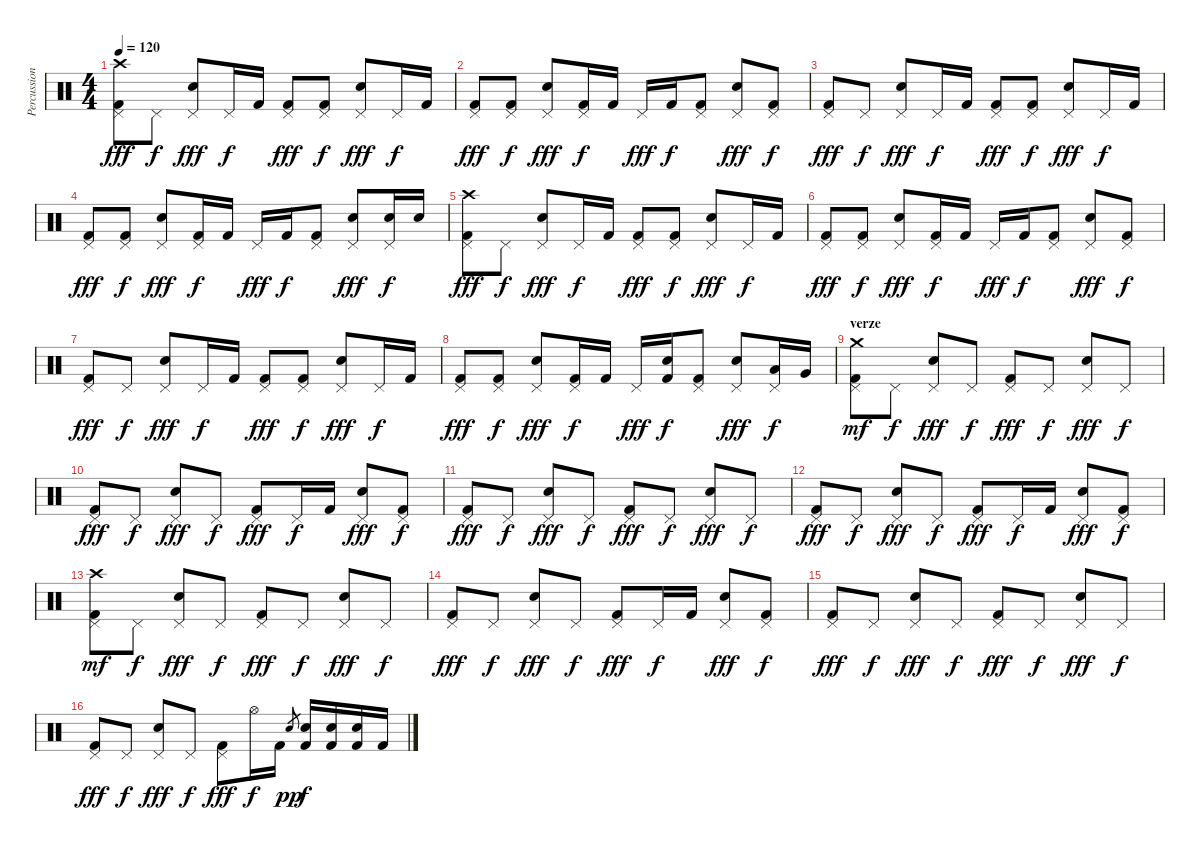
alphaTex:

\track ("Percussion" "Percussion") {instrument percussion}
\staff {score}
\articulation defaults
\ts (4 4)
\tempo 120
\clef neutral
\ks c
("Pedal Hi-Hat (hit)" "Kick (hit) 2" "Crash high (hit)").8{dy fff volume 15 balance 8} "Pedal Hi-Hat (hit)".8{dy f} ("Pedal Hi-Hat (hit)" "Snare (hit) 2").8{dy fff} "Pedal Hi-Hat (hit)".16{dy f} "Kick (hit) 2".16 ("Pedal Hi-Hat (hit)" "Kick (hit) 2").8{dy fff} ("Pedal Hi-Hat (hit)" "Kick (hit) 2").8{dy f} ("Pedal Hi-Hat (hit)" "Snare (hit) 2").8{dy fff} "Pedal Hi-Hat (hit)".16{dy f} "Kick (hit) 2".16 |
("Pedal Hi-Hat (hit)" "Kick (hit) 2").8{dy fff} ("Pedal Hi-Hat (hit)" "Kick (hit) 2").8{dy f} ("Pedal Hi-Hat (hit)" "Snare (hit) 2").8{dy fff} ("Pedal Hi-Hat (hit)" "Kick (hit) 2").16{dy f} "Kick (hit) 2".16 "Pedal Hi-Hat (hit)".16{dy fff} "Kick (hit) 2".16{dy f} ("Pedal Hi-Hat (hit)" "Kick (hit) 2").8 ("Pedal Hi-Hat (hit)" "Snare (hit) 2").8{dy fff} ("Pedal Hi-Hat (hit)" "Kick (hit) 2").8{dy f} |
("Pedal Hi-Hat (hit)" "Kick (hit) 2").8{dy fff} "Pedal Hi-Hat (hit)".8{dy f} ("Pedal Hi-Hat (hit)" "Snare (hit) 2").8{dy fff} "Pedal Hi-Hat (hit)".16{dy f} "Kick (hit) 2".16 ("Pedal Hi-Hat (hit)" "Kick (hit) 2").8{dy fff} ("Pedal Hi-Hat (hit)" "Kick (hit) 2").8{dy f} ("Pedal Hi-Hat (hit)" "Snare (hit) 2").8{dy fff} "Pedal Hi-Hat (hit)".16{dy f} "Kick (hit) 2".16 |
("Pedal Hi-Hat (hit)" "Kick (hit) 2").8{dy fff} ("Pedal Hi-Hat (hit)" "Kick (hit) 2").8{dy f} ("Pedal Hi-Hat (hit)" "Snare (hit) 2").8{dy fff} ("Pedal Hi-Hat (hit)" "Kick (hit) 2").16{dy f} "Kick (hit) 2".16 "Pedal Hi-Hat (hit)".16{dy fff} "Kick (hit) 2".16{dy f} ("Pedal Hi-Hat (hit)" "Kick (hit) 2").8 ("Pedal Hi-Hat (hit)" "Snare (hit) 2").8{dy fff} ("Pedal Hi-Hat (hit)" "Snare (hit) 2").16{dy f} "Snare (hit) 2".16 |
("Pedal Hi-Hat (hit)" "Kick (hit) 2" "Crash high (hit)").8{dy fff} "Pedal Hi-Hat (hit)".8{dy f} ("Pedal Hi-Hat (hit)" "Snare (hit) 2").8{dy fff} "Pedal Hi-Hat (hit)".16{dy f} "Kick (hit) 2".16 ("Pedal Hi-Hat (hit)" "Kick (hit) 2").8{dy fff} ("Pedal Hi-Hat (hit)" "Kick (hit) 2").8{dy f} ("Pedal Hi-Hat (hit)" "Snare (hit) 2").8{dy fff} "Pedal Hi-Hat (hit)".16{dy f} "Kick (hit) 2".16 |
("Pedal Hi-Hat (hit)" "Kick (hit) 2").8{dy fff} ("Pedal Hi-Hat (hit)" "Kick (hit) 2").8{dy f} ("Pedal Hi-Hat (hit)" "Snare (hit) 2").8{dy fff} ("Pedal Hi-Hat (hit)" "Kick (hit) 2").16{dy f} "Kick (hit) 2".16 "Pedal Hi-Hat (hit)".16{dy fff} "Kick (hit) 2".16{dy f} ("Pedal Hi-Hat (hit)" "Kick (hit) 2").8 ("Pedal Hi-Hat (hit)" "Snare (hit) 2").8{dy fff} ("Pedal Hi-Hat (hit)" "Kick (hit) 2").8{dy f} |
("Pedal Hi-Hat (hit)" "Kick (hit) 2").8{dy fff} "Pedal Hi-Hat (hit)".8{dy f} ("Pedal Hi-Hat (hit)" "Snare (hit) 2").8{dy fff} "Pedal Hi-Hat (hit)".16{dy f} "Kick (hit) 2".16 ("Pedal Hi-Hat (hit)" "Kick (hit) 2").8{dy fff} ("Pedal Hi-Hat (hit)" "Kick (hit) 2").8{dy f} ("Pedal Hi-Hat (hit)" "Snare (hit) 2").8{dy fff} "Pedal Hi-Hat (hit)".16{dy f} "Kick (hit) 2".16 |
("Pedal Hi-Hat (hit)" "Kick (hit) 2").8{dy fff} ("Pedal Hi-Hat (hit)" "Kick (hit) 2").8{dy f} ("Pedal Hi-Hat (hit)" "Snare (hit) 2").8{dy fff} ("Pedal Hi-Hat (hit)" "Kick (hit) 2").16{dy f} "Kick (hit) 2".16 "Pedal Hi-Hat (hit)".16{dy fff} ("Kick (hit) 2" "Snare (hit) 2").16{dy f} ("Pedal Hi-Hat (hit)" "Kick (hit) 2").8 ("Pedal Hi-Hat (hit)" "Snare (hit) 2").8{dy fff} ("Pedal Hi-Hat (hit)" "Low Tom (hit)").16{dy f} "Very Low Tom (hit)".16 |
\section ("" "verze")
("Pedal Hi-Hat (hit)" "Kick (hit) 2" "Crash medium (hit)").8{dy mf} "Pedal Hi-Hat (hit)".8{dy f} ("Pedal Hi-Hat (hit)" "Snare (hit) 2").8{dy fff} "Pedal Hi-Hat (hit)".8{dy f} ("Pedal Hi-Hat (hit)" "Kick (hit) 2").8{dy fff} "Pedal Hi-Hat (hit)".8{dy f} ("Pedal Hi-Hat (hit)" "Snare (hit) 2").8{dy fff} "Pedal Hi-Hat (hit)".8{dy f} |
("Pedal Hi-Hat (hit)" "Kick (hit) 2").8{dy fff} "Pedal Hi-Hat (hit)".8{dy f} ("Pedal Hi-Hat (hit)" "Snare (hit) 2").8{dy fff} "Pedal Hi-Hat (hit)".8{dy f} ("Pedal Hi-Hat (hit)" "Kick (hit) 2").8{dy fff} "Pedal Hi-Hat (hit)".16{dy f} "Kick (hit) 2".16 ("Pedal Hi-Hat (hit)" "Snare (hit) 2").8{dy fff} ("Pedal Hi-Hat (hit)" "Kick (hit) 2").8{dy f} |
("Pedal Hi-Hat (hit)" "Kick (hit) 2").8{dy fff} "Pedal Hi-Hat (hit)".8{dy f} ("Pedal Hi-Hat (hit)" "Snare (hit) 2").8{dy fff} "Pedal Hi-Hat (hit)".8{dy f} ("Pedal Hi-Hat (hit)" "Kick (hit) 2").8{dy fff} "Pedal Hi-Hat (hit)".8{dy f} ("Pedal Hi-Hat (hit)" "Snare (hit) 2").8{dy fff} "Pedal Hi-Hat (hit)".8{dy f} |
("Pedal Hi-Hat (hit)" "Kick (hit) 2").8{dy fff} "Pedal Hi-Hat (hit)".8{dy f} ("Pedal Hi-Hat (hit)" "Snare (hit) 2").8{dy fff} "Pedal Hi-Hat (hit)".8{dy f} ("Pedal Hi-Hat (hit)" "Kick (hit) 2").8{dy fff} "Pedal Hi-Hat (hit)".16{dy f} "Kick (hit) 2".16 ("Pedal Hi-Hat (hit)" "Snare (hit) 2").8{dy fff} ("Pedal Hi-Hat (hit)" "Kick (hit) 2").8{dy f} |
("Pedal Hi-Hat (hit)" "Kick (hit) 2" "Crash high (hit)").8{dy mf} "Pedal Hi-Hat (hit)".8{dy f} ("Pedal Hi-Hat (hit)" "Snare (hit) 2").8{dy fff} "Pedal Hi-Hat (hit)".8{dy f} ("Pedal Hi-Hat (hit)" "Kick (hit) 2").8{dy fff} "Pedal Hi-Hat (hit)".8{dy f} ("Pedal Hi-Hat (hit)" "Snare (hit) 2").8{dy fff} "Pedal Hi-Hat (hit)".8{dy f} |
("Pedal Hi-Hat (hit)" "Kick (hit) 2").8{dy fff} "Pedal Hi-Hat (hit)".8{dy f} ("Pedal Hi-Hat (hit)" "Snare (hit) 2").8{dy fff} "Pedal Hi-Hat (hit)".8{dy f} ("Pedal Hi-Hat (hit)" "Kick (hit) 2").8{dy fff} "Pedal Hi-Hat (hit)".16{dy f} "Kick (hit) 2".16 ("Pedal Hi-Hat (hit)" "Snare (hit) 2").8{dy fff} ("Pedal Hi-Hat (hit)" "Kick (hit) 2").8{dy f} |
("Pedal Hi-Hat (hit)" "Kick (hit) 2").8{dy fff} "Pedal Hi-Hat (hit)".8{dy f} ("Pedal Hi-Hat (hit)" "Snare (hit) 2").8{dy fff} "Pedal Hi-Hat (hit)".8{dy f} ("Pedal Hi-Hat (hit)" "Kick (hit) 2").8{dy fff} "Pedal Hi-Hat (hit)".8{dy f} ("Pedal Hi-Hat (hit)" "Snare (hit) 2").8{dy fff} "Pedal Hi-Hat (hit)".8{dy f} |
("Pedal Hi-Hat (hit)" "Kick (hit) 2").8{dy fff} "Pedal Hi-Hat (hit)".8{dy f} ("Pedal Hi-Hat (hit)" "Snare (hit) 2").8{dy fff} "Pedal Hi-Hat (hit)".8{dy f} ("Pedal Hi-Hat (hit)" "Kick (hit) 2").8{dy fff} "Hi-Hat (open)".16{dy f} "Kick (hit) 2".16 "Snare (hit) 2".8{gr dy pp} ("Kick (hit) 2" "Snare (hit) 2").16{dy f} ("Kick (hit) 2" "Snare (hit) 2").16 ("Kick (hit) 2" "Snare (hit) 2").16 "Kick (hit) 2".16
